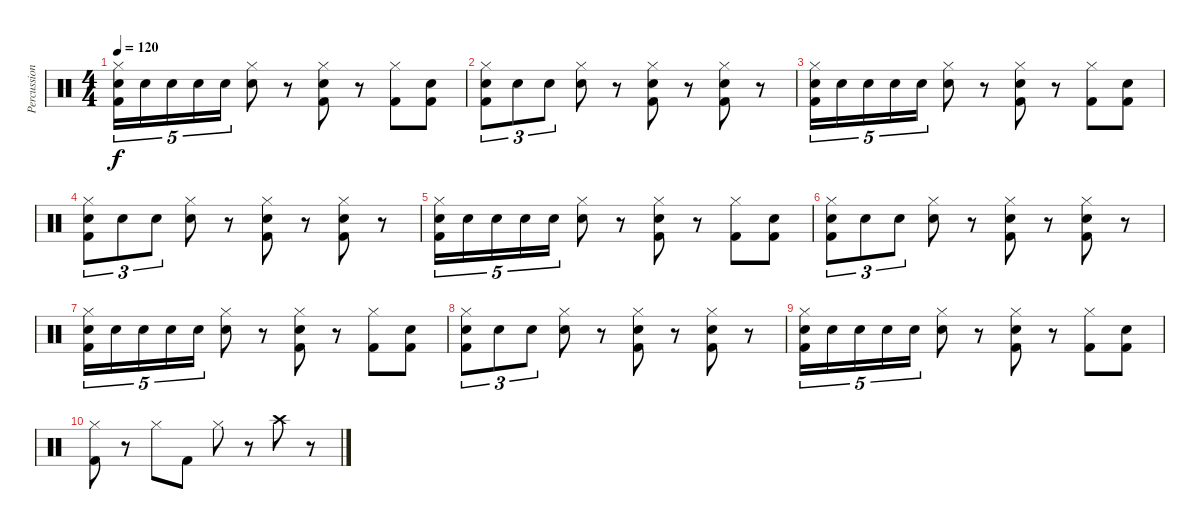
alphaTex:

\track ("Percussion" "Percussion") {instrument percussion}
\staff {score}
\articulation defaults
\ts (4 4)
\tempo 120
\clef neutral
\ks c
("Hi-Hat (closed)" "Snare (hit) 2" "Kick (hit) 2").16{tu (5 4) dy f} "Snare (hit) 2".16{tu (5 4)} "Snare (hit) 2".16{tu (5 4)} "Snare (hit) 2".16{tu (5 4)} "Snare (hit) 2".16{tu (5 4)} ("Hi-Hat (closed)" "Snare (hit) 2").8 r.8 ("Hi-Hat (closed)" "Snare (hit) 2" "Kick (hit) 2").8 r.8 ("Hi-Hat (closed)" "Kick (hit) 2").8 ("Snare (hit) 2" "Kick (hit) 2").8 |
("Hi-Hat (closed)" "Snare (hit) 2" "Kick (hit) 2").8{tu (3 2)} "Snare (hit) 2".8{tu (3 2)} "Snare (hit) 2".8{tu (3 2)} ("Hi-Hat (closed)" "Snare (hit) 2").8 r.8 ("Hi-Hat (closed)" "Snare (hit) 2" "Kick (hit) 2").8 r.8 ("Hi-Hat (closed)" "Snare (hit) 2" "Kick (hit) 2").8 r.8 |
("Hi-Hat (closed)" "Snare (hit) 2" "Kick (hit) 2").16{tu (5 4)} "Snare (hit) 2".16{tu (5 4)} "Snare (hit) 2".16{tu (5 4)} "Snare (hit) 2".16{tu (5 4)} "Snare (hit) 2".16{tu (5 4)} ("Hi-Hat (closed)" "Snare (hit) 2").8 r.8 ("Hi-Hat (closed)" "Snare (hit) 2" "Kick (hit) 2").8 r.8 ("Hi-Hat (closed)" "Kick (hit) 2").8 ("Snare (hit) 2" "Kick (hit) 2").8 |
("Hi-Hat (closed)" "Snare (hit) 2" "Kick (hit) 2").8{tu (3 2)} "Snare (hit) 2".8{tu (3 2)} "Snare (hit) 2".8{tu (3 2)} ("Hi-Hat (closed)" "Snare (hit) 2").8 r.8 ("Hi-Hat (closed)" "Snare (hit) 2" "Kick (hit) 2").8 r.8 ("Hi-Hat (closed)" "Snare (hit) 2" "Kick (hit) 2").8 r.8 |
("Hi-Hat (closed)" "Snare (hit) 2" "Kick (hit) 2").16{tu (5 4)} "Snare (hit) 2".16{tu (5 4)} "Snare (hit) 2".16{tu (5 4)} "Snare (hit) 2".16{tu (5 4)} "Snare (hit) 2".16{tu (5 4)} ("Hi-Hat (closed)" "Snare (hit) 2").8 r.8 ("Hi-Hat (closed)" "Snare (hit) 2" "Kick (hit) 2").8 r.8 ("Hi-Hat (closed)" "Kick (hit) 2").8 ("Snare (hit) 2" "Kick (hit) 2").8 |
("Hi-Hat (closed)" "Snare (hit) 2" "Kick (hit) 2").8{tu (3 2)} "Snare (hit) 2".8{tu (3 2)} "Snare (hit) 2".8{tu (3 2)} ("Hi-Hat (closed)" "Snare (hit) 2").8 r.8 ("Hi-Hat (closed)" "Snare (hit) 2" "Kick (hit) 2").8 r.8 ("Hi-Hat (closed)" "Snare (hit) 2" "Kick (hit) 2").8 r.8 |
("Hi-Hat (closed)" "Snare (hit) 2" "Kick (hit) 2").16{tu (5 4)} "Snare (hit) 2".16{tu (5 4)} "Snare (hit) 2".16{tu (5 4)} "Snare (hit) 2".16{tu (5 4)} "Snare (hit) 2".16{tu (5 4)} ("Hi-Hat (closed)" "Snare (hit) 2").8 r.8 ("Hi-Hat (closed)" "Snare (hit) 2" "Kick (hit) 2").8 r.8 ("Hi-Hat (closed)" "Kick (hit) 2").8 ("Snare (hit) 2" "Kick (hit) 2").8 |
("Hi-Hat (closed)" "Snare (hit) 2" "Kick (hit) 2").8{tu (3 2)} "Snare (hit) 2".8{tu (3 2)} "Snare (hit) 2".8{tu (3 2)} ("Hi-Hat (closed)" "Snare (hit) 2").8 r.8 ("Hi-Hat (closed)" "Snare (hit) 2" "Kick (hit) 2").8 r.8 ("Hi-Hat (closed)" "Snare (hit) 2" "Kick (hit) 2").8 r.8 |
("Hi-Hat (closed)" "Snare (hit) 2" "Kick (hit) 2").16{tu (5 4)} "Snare (hit) 2".16{tu (5 4)} "Snare (hit) 2".16{tu (5 4)} "Snare (hit) 2".16{tu (5 4)} "Snare (hit) 2".16{tu (5 4)} ("Hi-Hat (closed)" "Snare (hit) 2").8 r.8 ("Hi-Hat (closed)" "Snare (hit) 2" "Kick (hit) 2").8 r.8 ("Hi-Hat (closed)" "Kick (hit) 2").8 ("Snare (hit) 2" "Kick (hit) 2").8 |
("Hi-Hat (closed)" "Kick (hit) 2").8 r.8 "Hi-Hat (closed)".8 "Kick (hit) 2".8 "Hi-Hat (closed)".8 r.8 "Crash high (hit)".8 r.8
